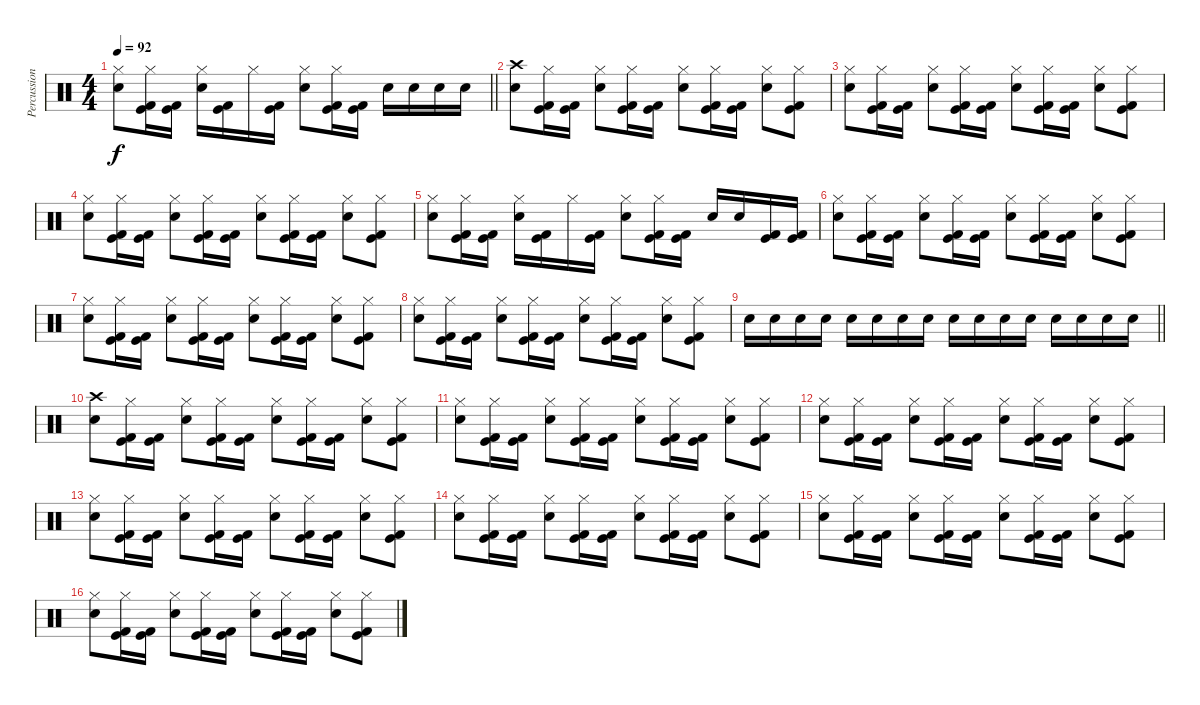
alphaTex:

\track ("Percussion" "Percussion") {instrument percussion}
\staff {score}
\articulation defaults
\ts (4 4)
\tempo 92
\clef neutral
\barLineRight lightlight
\ks c
("Hi-Hat (closed)" "Electric Snare (hit)").8{dy f} ("Hi-Hat (closed)" "Kick (hit)" "Kick (hit) 2").16 ("Kick (hit)" "Kick (hit) 2").16 ("Hi-Hat (closed)" "Electric Snare (hit)").16 ("Kick (hit)" "Kick (hit) 2").16 "Hi-Hat (closed)".16 ("Kick (hit)" "Kick (hit) 2").16 ("Hi-Hat (closed)" "Electric Snare (hit)").8 ("Hi-Hat (closed)" "Kick (hit)" "Kick (hit) 2").16 ("Kick (hit)" "Kick (hit) 2").16 "Electric Snare (hit)".16 "Electric Snare (hit)".16 "Electric Snare (hit)".16 "Electric Snare (hit)".16 |
\section ("" "")
("Crash high (hit)" "Electric Snare (hit)").8 ("Hi-Hat (closed)" "Kick (hit)" "Kick (hit) 2").16 ("Kick (hit)" "Kick (hit) 2").16 ("Hi-Hat (closed)" "Electric Snare (hit)").8 ("Hi-Hat (closed)" "Kick (hit)" "Kick (hit) 2").16 ("Kick (hit)" "Kick (hit) 2").16 ("Hi-Hat (closed)" "Electric Snare (hit)").8 ("Hi-Hat (closed)" "Kick (hit)" "Kick (hit) 2").16 ("Kick (hit)" "Kick (hit) 2").16 ("Hi-Hat (closed)" "Electric Snare (hit)").8 ("Hi-Hat (closed)" "Kick (hit)" "Kick (hit) 2").8 |
("Hi-Hat (closed)" "Electric Snare (hit)").8 ("Hi-Hat (closed)" "Kick (hit)" "Kick (hit) 2").16 ("Kick (hit)" "Kick (hit) 2").16 ("Hi-Hat (closed)" "Electric Snare (hit)").8 ("Hi-Hat (closed)" "Kick (hit)" "Kick (hit) 2").16 ("Kick (hit)" "Kick (hit) 2").16 ("Hi-Hat (closed)" "Electric Snare (hit)").8 ("Hi-Hat (closed)" "Kick (hit)" "Kick (hit) 2").16 ("Kick (hit)" "Kick (hit) 2").16 ("Hi-Hat (closed)" "Electric Snare (hit)").8 ("Hi-Hat (closed)" "Kick (hit)" "Kick (hit) 2").8 |
("Hi-Hat (closed)" "Electric Snare (hit)").8 ("Hi-Hat (closed)" "Kick (hit)" "Kick (hit) 2").16 ("Kick (hit)" "Kick (hit) 2").16 ("Hi-Hat (closed)" "Electric Snare (hit)").8 ("Hi-Hat (closed)" "Kick (hit)" "Kick (hit) 2").16 ("Kick (hit)" "Kick (hit) 2").16 ("Hi-Hat (closed)" "Electric Snare (hit)").8 ("Hi-Hat (closed)" "Kick (hit)" "Kick (hit) 2").16 ("Kick (hit)" "Kick (hit) 2").16 ("Hi-Hat (closed)" "Electric Snare (hit)").8 ("Hi-Hat (closed)" "Kick (hit)" "Kick (hit) 2").8 |
("Hi-Hat (closed)" "Electric Snare (hit)").8 ("Hi-Hat (closed)" "Kick (hit)" "Kick (hit) 2").16 ("Kick (hit)" "Kick (hit) 2").16 ("Hi-Hat (closed)" "Electric Snare (hit)").16 ("Kick (hit)" "Kick (hit) 2").16 "Hi-Hat (closed)".16 ("Kick (hit)" "Kick (hit) 2").16 ("Hi-Hat (closed)" "Electric Snare (hit)").8 ("Hi-Hat (closed)" "Kick (hit)" "Kick (hit) 2").16 ("Kick (hit)" "Kick (hit) 2").16 "Electric Snare (hit)".16 "Electric Snare (hit)".16 ("Kick (hit)" "Kick (hit) 2").16 ("Kick (hit)" "Kick (hit) 2").16 |
("Hi-Hat (closed)" "Electric Snare (hit)").8 ("Hi-Hat (closed)" "Kick (hit)" "Kick (hit) 2").16 ("Kick (hit)" "Kick (hit) 2").16 ("Hi-Hat (closed)" "Electric Snare (hit)").8 ("Hi-Hat (closed)" "Kick (hit)" "Kick (hit) 2").16 ("Kick (hit)" "Kick (hit) 2").16 ("Hi-Hat (closed)" "Electric Snare (hit)").8 ("Hi-Hat (closed)" "Kick (hit)" "Kick (hit) 2").16 ("Kick (hit)" "Kick (hit) 2").16 ("Hi-Hat (closed)" "Electric Snare (hit)").8 ("Hi-Hat (closed)" "Kick (hit)" "Kick (hit) 2").8 |
("Hi-Hat (closed)" "Electric Snare (hit)").8 ("Hi-Hat (closed)" "Kick (hit)" "Kick (hit) 2").16 ("Kick (hit)" "Kick (hit) 2").16 ("Hi-Hat (closed)" "Electric Snare (hit)").8 ("Hi-Hat (closed)" "Kick (hit)" "Kick (hit) 2").16 ("Kick (hit)" "Kick (hit) 2").16 ("Hi-Hat (closed)" "Electric Snare (hit)").8 ("Hi-Hat (closed)" "Kick (hit)" "Kick (hit) 2").16 ("Kick (hit)" "Kick (hit) 2").16 ("Hi-Hat (closed)" "Electric Snare (hit)").8 ("Hi-Hat (closed)" "Kick (hit)" "Kick (hit) 2").8 |
("Hi-Hat (closed)" "Electric Snare (hit)").8 ("Hi-Hat (closed)" "Kick (hit)" "Kick (hit) 2").16 ("Kick (hit)" "Kick (hit) 2").16 ("Hi-Hat (closed)" "Electric Snare (hit)").8 ("Hi-Hat (closed)" "Kick (hit)" "Kick (hit) 2").16 ("Kick (hit)" "Kick (hit) 2").16 ("Hi-Hat (closed)" "Electric Snare (hit)").8 ("Hi-Hat (closed)" "Kick (hit)" "Kick (hit) 2").16 ("Kick (hit)" "Kick (hit) 2").16 ("Hi-Hat (closed)" "Electric Snare (hit)").8 ("Hi-Hat (closed)" "Kick (hit)" "Kick (hit) 2").8 |
\barLineRight lightlight "Electric Snare (hit)".16 "Electric Snare (hit)".16 "Electric Snare (hit)".16 "Electric Snare (hit)".16 "Electric Snare (hit)".16 "Electric Snare (hit)".16 "Electric Snare (hit)".16 "Electric Snare (hit)".16 "Electric Snare (hit)".16 "Electric Snare (hit)".16 "Electric Snare (hit)".16 "Electric Snare (hit)".16 "Electric Snare (hit)".16 "Electric Snare (hit)".16 "Electric Snare (hit)".16 "Electric Snare (hit)".16
|
\section ("" "")
("Crash high (hit)" "Electric Snare (hit)").8 ("Hi-Hat (closed)" "Kick (hit)" "Kick (hit) 2").16 ("Kick (hit)" "Kick (hit) 2").16 ("Hi-Hat (closed)" "Electric Snare (hit)").8 ("Hi-Hat (closed)" "Kick (hit)" "Kick (hit) 2").16 ("Kick (hit)" "Kick (hit) 2").16 ("Hi-Hat (closed)" "Electric Snare (hit)").8 ("Hi-Hat (closed)" "Kick (hit)" "Kick (hit) 2").16 ("Kick (hit)" "Kick (hit) 2").16 ("Hi-Hat (closed)" "Electric Snare (hit)").8 ("Hi-Hat (closed)" "Kick (hit)" "Kick (hit) 2").8 |
("Hi-Hat (closed)" "Electric Snare (hit)").8 ("Hi-Hat (closed)" "Kick (hit)" "Kick (hit) 2").16 ("Kick (hit)" "Kick (hit) 2").16 ("Hi-Hat (closed)" "Electric Snare (hit)").8 ("Hi-Hat (closed)" "Kick (hit)" "Kick (hit) 2").16 ("Kick (hit)" "Kick (hit) 2").16 ("Hi-Hat (closed)" "Electric Snare (hit)").8 ("Hi-Hat (closed)" "Kick (hit)" "Kick (hit) 2").16 ("Kick (hit)" "Kick (hit) 2").16 ("Hi-Hat (closed)" "Electric Snare (hit)").8 ("Hi-Hat (closed)" "Kick (hit)" "Kick (hit) 2").8 |
("Hi-Hat (closed)" "Electric Snare (hit)").8 ("Hi-Hat (closed)" "Kick (hit)" "Kick (hit) 2").16 ("Kick (hit)" "Kick (hit) 2").16 ("Hi-Hat (closed)" "Electric Snare (hit)").8 ("Hi-Hat (closed)" "Kick (hit)" "Kick (hit) 2").16 ("Kick (hit)" "Kick (hit) 2").16 ("Hi-Hat (closed)" "Electric Snare (hit)").8 ("Hi-Hat (closed)" "Kick (hit)" "Kick (hit) 2").16 ("Kick (hit)" "Kick (hit) 2").16 ("Hi-Hat (closed)" "Electric Snare (hit)").8 ("Hi-Hat (closed)" "Kick (hit)" "Kick (hit) 2").8 |
("Hi-Hat (closed)" "Electric Snare (hit)").8 ("Hi-Hat (closed)" "Kick (hit)" "Kick (hit) 2").16 ("Kick (hit)" "Kick (hit) 2").16 ("Hi-Hat (closed)" "Electric Snare (hit)").8 ("Hi-Hat (closed)" "Kick (hit)" "Kick (hit) 2").16 ("Kick (hit)" "Kick (hit) 2").16 ("Hi-Hat (closed)" "Electric Snare (hit)").8 ("Hi-Hat (closed)" "Kick (hit)" "Kick (hit) 2").16 ("Kick (hit)" "Kick (hit) 2").16 ("Hi-Hat (closed)" "Electric Snare (hit)").8 ("Hi-Hat (closed)" "Kick (hit)" "Kick (hit) 2").8 |
("Hi-Hat (closed)" "Electric Snare (hit)").8 ("Hi-Hat (closed)" "Kick (hit)" "Kick (hit) 2").16 ("Kick (hit)" "Kick (hit) 2").16 ("Hi-Hat (closed)" "Electric Snare (hit)").8 ("Hi-Hat (closed)" "Kick (hit)" "Kick (hit) 2").16 ("Kick (hit)" "Kick (hit) 2").16 ("Hi-Hat (closed)" "Electric Snare (hit)").8 ("Hi-Hat (closed)" "Kick (hit)" "Kick (hit) 2").16 ("Kick (hit)" "Kick (hit) 2").16 ("Hi-Hat (closed)" "Electric Snare (hit)").8 ("Hi-Hat (closed)" "Kick (hit)" "Kick (hit) 2").8 |
("Hi-Hat (closed)" "Electric Snare (hit)").8 ("Hi-Hat (closed)" "Kick (hit)" "Kick (hit) 2").16 ("Kick (hit)" "Kick (hit) 2").16 ("Hi-Hat (closed)" "Electric Snare (hit)").8 ("Hi-Hat (closed)" "Kick (hit)" "Kick (hit) 2").16 ("Kick (hit)" "Kick (hit) 2").16 ("Hi-Hat (closed)" "Electric Snare (hit)").8 ("Hi-Hat (closed)" "Kick (hit)" "Kick (hit) 2").16 ("Kick (hit)" "Kick (hit) 2").16 ("Hi-Hat (closed)" "Electric Snare (hit)").8 ("Hi-Hat (closed)" "Kick (hit)" "Kick (hit) 2").8 |
("Hi-Hat (closed)" "Electric Snare (hit)").8 ("Hi-Hat (closed)" "Kick (hit)" "Kick (hit) 2").16 ("Kick (hit)" "Kick (hit) 2").16 ("Hi-Hat (closed)" "Electric Snare (hit)").8 ("Hi-Hat (closed)" "Kick (hit)" "Kick (hit) 2").16 ("Kick (hit)" "Kick (hit) 2").16 ("Hi-Hat (closed)" "Electric Snare (hit)").8 ("Hi-Hat (closed)" "Kick (hit)" "Kick (hit) 2").16 ("Kick (hit)" "Kick (hit) 2").16 ("Hi-Hat (closed)" "Electric Snare (hit)").8 ("Hi-Hat (closed)" "Kick (hit)" "Kick (hit) 2").8
